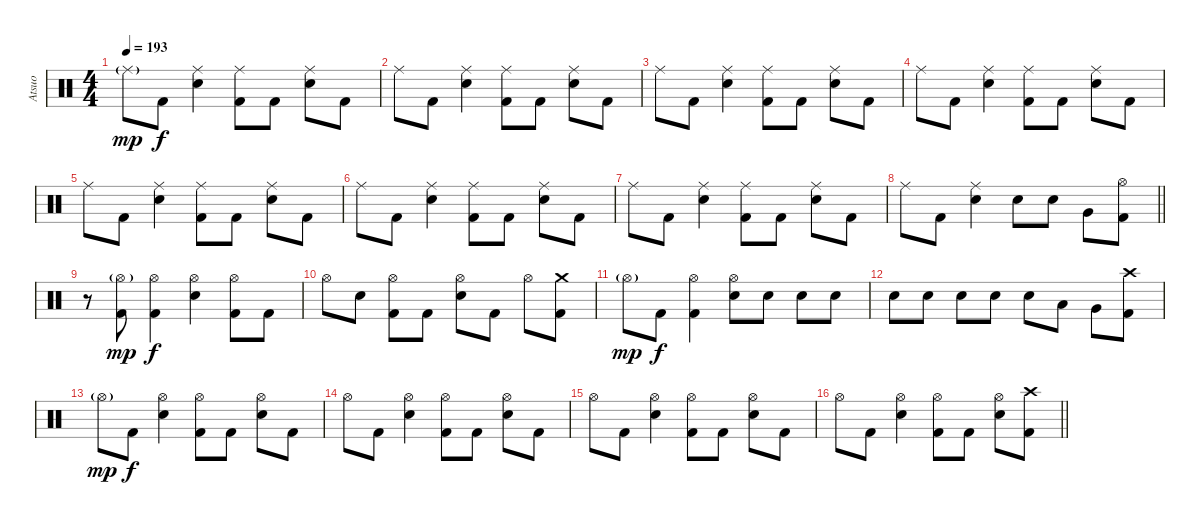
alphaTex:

\track ("Atsuo" "Atsuo") {instrument percussion}
\staff {score}
\articulation defaults
\ts (4 4)
\tempo 193
\clef neutral
\ks c "Ride (middle)"{g}.8{dy mp} "Kick (hit) 2".8{dy f}
("Ride (middle)" "Electric Snare (hit)").4 ("Ride (middle)" "Kick (hit) 2").8 "Kick (hit) 2".8 ("Ride (middle)" "Electric Snare (hit)").8 "Kick (hit) 2".8 |
"Ride (middle)".8 "Kick (hit) 2".8 ("Ride (middle)" "Electric Snare (hit)").4 ("Ride (middle)" "Kick (hit) 2").8 "Kick (hit) 2".8 ("Ride (middle)" "Electric Snare (hit)").8 "Kick (hit) 2".8 |
"Ride (middle)".8 "Kick (hit) 2".8 ("Ride (middle)" "Electric Snare (hit)").4 ("Ride (middle)" "Kick (hit) 2").8 "Kick (hit) 2".8 ("Ride (middle)" "Electric Snare (hit)").8 "Kick (hit) 2".8 |
"Ride (middle)".8 "Kick (hit) 2".8 ("Ride (middle)" "Electric Snare (hit)").4 ("Ride (middle)" "Kick (hit) 2").8 "Kick (hit) 2".8 ("Ride (middle)" "Electric Snare (hit)").8 "Kick (hit) 2".8 |
"Ride (middle)".8 "Kick (hit) 2".8 ("Ride (middle)" "Electric Snare (hit)").4 ("Ride (middle)" "Kick (hit) 2").8 "Kick (hit) 2".8 ("Ride (middle)" "Electric Snare (hit)").8 "Kick (hit) 2".8 |
"Ride (middle)".8 "Kick (hit) 2".8 ("Ride (middle)" "Electric Snare (hit)").4 ("Ride (middle)" "Kick (hit) 2").8 "Kick (hit) 2".8 ("Ride (middle)" "Electric Snare (hit)").8 "Kick (hit) 2".8 |
"Ride (middle)".8 "Kick (hit) 2".8 ("Ride (middle)" "Electric Snare (hit)").4 ("Ride (middle)" "Kick (hit) 2").8 "Kick (hit) 2".8 ("Ride (middle)" "Electric Snare (hit)").8 "Kick (hit) 2".8 |
\barLineRight lightlight "Ride (middle)".8 "Kick (hit) 2".8
("Ride (middle)" "Electric Snare (hit)").4 "Electric Snare (hit)".8 "Electric Snare (hit)".8 "Very Low Tom (hit)".8 ("Hi-Hat (open)" "Kick (hit) 2").8 |
\section ("" "")
r.8 ("Hi-Hat (open)"{g} "Kick (hit) 2").8{dy mp} ("Hi-Hat (open)" "Kick (hit) 2").4{dy f} ("Hi-Hat (open)" "Electric Snare (hit)").4 ("Hi-Hat (open)" "Kick (hit) 2").8 "Kick (hit) 2".8 |
"Hi-Hat (open)".8 "Electric Snare (hit)".8 ("Hi-Hat (open)" "Kick (hit) 2").8 "Kick (hit) 2".8 ("Hi-Hat (open)" "Electric Snare (hit)").8 "Kick (hit) 2".8 "Hi-Hat (open)".8 ("Crash medium (hit)" "Kick (hit) 2").8 |
"Hi-Hat (open)"{g}.8{dy mp} "Kick (hit) 2".8{dy f} ("Hi-Hat (open)" "Kick (hit) 2").4 ("Hi-Hat (open)" "Electric Snare (hit)").8 "Electric Snare (hit)".8 "Electric Snare (hit)".8 "Electric Snare (hit)".8 |
"Electric Snare (hit)".8 "Electric Snare (hit)".8 "Electric Snare (hit)".8 "Electric Snare (hit)".8 "Electric Snare (hit)".8 "Low Tom (hit)".8 "Very Low Tom (hit)".8 ("Crash high (hit)" "Kick (hit) 2").8 |
"Hi-Hat (open)"{g}.8{dy mp} "Kick (hit) 2".8{dy f} ("Hi-Hat (open)" "Electric Snare (hit)").4 ("Hi-Hat (open)" "Kick (hit) 2").8 "Kick (hit) 2".8 ("Hi-Hat (open)" "Electric Snare (hit)").8 "Kick (hit) 2".8 |
"Hi-Hat (open)".8 "Kick (hit) 2".8 ("Hi-Hat (open)" "Electric Snare (hit)").4 ("Hi-Hat (open)" "Kick (hit) 2").8 "Kick (hit) 2".8 ("Hi-Hat (open)" "Electric Snare (hit)").8 "Kick (hit) 2".8 |
"Hi-Hat (open)".8 "Kick (hit) 2".8 ("Hi-Hat (open)" "Electric Snare (hit)").4 ("Hi-Hat (open)" "Kick (hit) 2").8 "Kick (hit) 2".8 ("Hi-Hat (open)" "Electric Snare (hit)").8 "Kick (hit) 2".8 |
\barLineRight lightlight "Hi-Hat (open)".8 "Kick (hit) 2".8
("Hi-Hat (open)" "Electric Snare (hit)").4 ("Hi-Hat (open)" "Kick (hit) 2").8 "Kick (hit) 2".8 ("Hi-Hat (open)" "Electric Snare (hit)").8 ("Crash high (hit)" "Kick (hit) 2").8
